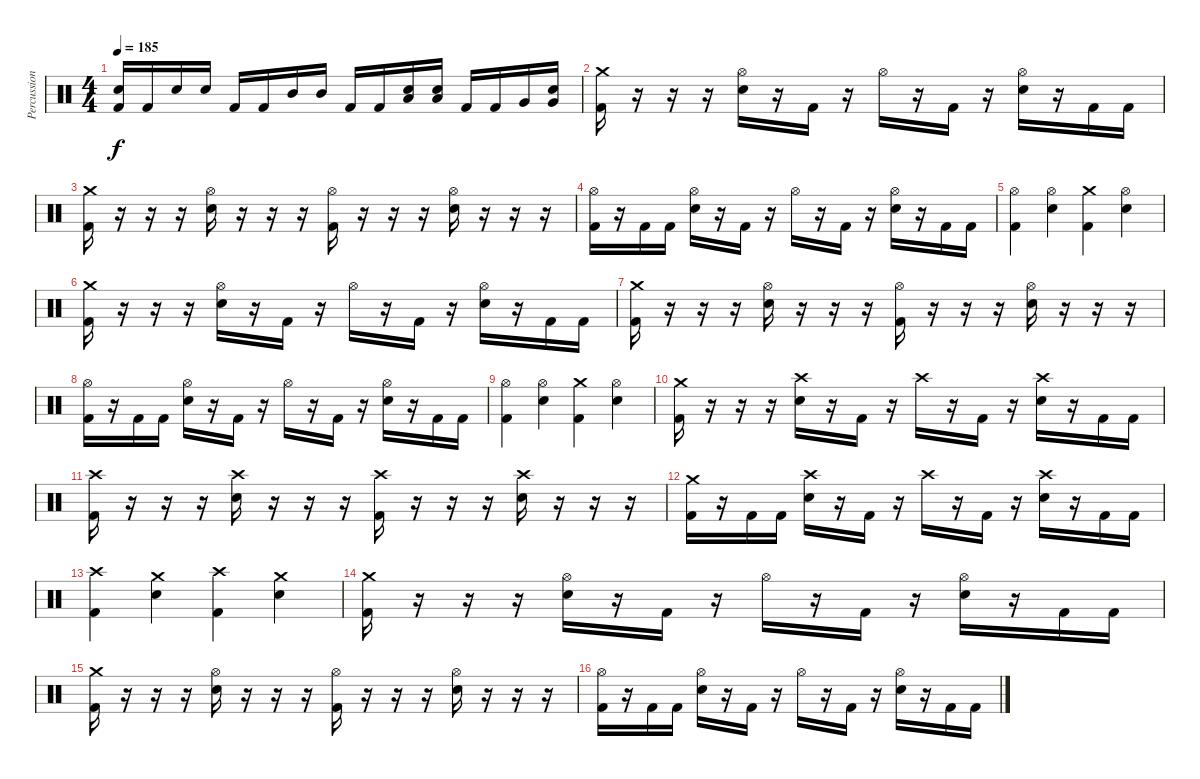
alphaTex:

\track ("Percussion" "Percussion") {instrument percussion}
\staff {score}
\articulation defaults
\ts (4 4)
\tempo 185
\clef neutral
\ks c
("Electric Snare (hit)" "Kick (hit) 2").16{dy f} "Kick (hit) 2".16 "Electric Snare (hit)".16 "Electric Snare (hit)".16 "Kick (hit) 2".16 "Kick (hit) 2".16 "Mid Tom (hit)".16 "Mid Tom (hit)".16 "Kick (hit) 2".16 "Kick (hit) 2".16 ("Electric Snare (hit)" "Low Tom (hit)").16 ("Electric Snare (hit)" "Low Tom (hit)").16 "Kick (hit) 2".16 "Kick (hit) 2".16 "Very Low Tom (hit)".16 ("Electric Snare (hit)" "Very Low Tom (hit)").16 |
("Crash medium (hit)" "Kick (hit) 2").16 r.16 r.16 r.16 ("Hi-Hat (open)" "Electric Snare (hit)").16 r.16 "Kick (hit) 2".16 r.16 "Hi-Hat (open)".16 r.16 "Kick (hit) 2".16 r.16 ("Hi-Hat (open)" "Electric Snare (hit)").16 r.16 "Kick (hit) 2".16 "Kick (hit) 2".16 |
("Crash medium (hit)" "Kick (hit) 2").16 r.16 r.16 r.16 ("Hi-Hat (open)" "Electric Snare (hit)").16 r.16 r.16 r.16 ("Hi-Hat (open)" "Kick (hit) 2").16 r.16 r.16 r.16 ("Hi-Hat (open)" "Electric Snare (hit)").16 r.16 r.16 r.16 |
("Hi-Hat (open)" "Kick (hit) 2").16 r.16 "Kick (hit) 2".16 "Kick (hit) 2".16 ("Hi-Hat (open)" "Electric Snare (hit)").16 r.16 "Kick (hit) 2".16 r.16 "Hi-Hat (open)".16 r.16 "Kick (hit) 2".16 r.16 ("Hi-Hat (open)" "Electric Snare (hit)").16 r.16 "Kick (hit) 2".16 "Kick (hit) 2".16 |
("Hi-Hat (open)" "Kick (hit) 2").4 ("Hi-Hat (open)" "Electric Snare (hit)").4 ("Crash medium (hit)" "Kick (hit) 2").4 ("Hi-Hat (open)" "Electric Snare (hit)").4 |
("Crash medium (hit)" "Kick (hit) 2").16 r.16 r.16 r.16 ("Hi-Hat (open)" "Electric Snare (hit)").16 r.16 "Kick (hit) 2".16 r.16 "Hi-Hat (open)".16 r.16 "Kick (hit) 2".16 r.16 ("Hi-Hat (open)" "Electric Snare (hit)").16 r.16 "Kick (hit) 2".16 "Kick (hit) 2".16 |
("Crash medium (hit)" "Kick (hit) 2").16 r.16 r.16 r.16 ("Hi-Hat (open)" "Electric Snare (hit)").16 r.16 r.16 r.16 ("Hi-Hat (open)" "Kick (hit) 2").16 r.16 r.16 r.16 ("Hi-Hat (open)" "Electric Snare (hit)").16 r.16 r.16 r.16 |
("Hi-Hat (open)" "Kick (hit) 2").16 r.16 "Kick (hit) 2".16 "Kick (hit) 2".16 ("Hi-Hat (open)" "Electric Snare (hit)").16 r.16 "Kick (hit) 2".16 r.16 "Hi-Hat (open)".16 r.16 "Kick (hit) 2".16 r.16 ("Hi-Hat (open)" "Electric Snare (hit)").16 r.16 "Kick (hit) 2".16 "Kick (hit) 2".16 |
("Hi-Hat (open)" "Kick (hit) 2").4 ("Hi-Hat (open)" "Electric Snare (hit)").4 ("Crash medium (hit)" "Kick (hit) 2").4 ("Hi-Hat (open)" "Electric Snare (hit)").4 |
("Crash medium (hit)" "Kick (hit) 2").16 r.16 r.16 r.16 ("Crash high (hit)" "Electric Snare (hit)").16 r.16 "Kick (hit) 2".16 r.16 "Crash high (hit)".16 r.16 "Kick (hit) 2".16 r.16 ("Crash high (hit)" "Electric Snare (hit)").16 r.16 "Kick (hit) 2".16 "Kick (hit) 2".16 |
("Crash high (hit)" "Kick (hit) 2").16 r.16 r.16 r.16 ("Crash high (hit)" "Electric Snare (hit)").16 r.16 r.16 r.16 ("Crash high (hit)" "Kick (hit) 2").16 r.16 r.16 r.16 ("Crash high (hit)" "Electric Snare (hit)").16 r.16 r.16 r.16 |
("Crash medium (hit)" "Kick (hit) 2").16 r.16 "Kick (hit) 2".16 "Kick (hit) 2".16 ("Crash high (hit)" "Electric Snare (hit)").16 r.16 "Kick (hit) 2".16 r.16 "Crash high (hit)".16 r.16 "Kick (hit) 2".16 r.16 ("Crash high (hit)" "Electric Snare (hit)").16 r.16 "Kick (hit) 2".16 "Kick (hit) 2".16 |
("Crash high (hit)" "Kick (hit) 2").4 ("Crash medium (hit)" "Electric Snare (hit)").4 ("Crash high (hit)" "Kick (hit) 2").4 ("Crash medium (hit)" "Electric Snare (hit)").4 |
("Crash medium (hit)" "Kick (hit) 2").16 r.16 r.16 r.16 ("Hi-Hat (open)" "Electric Snare (hit)").16 r.16 "Kick (hit) 2".16 r.16 "Hi-Hat (open)".16 r.16 "Kick (hit) 2".16 r.16 ("Hi-Hat (open)" "Electric Snare (hit)").16 r.16 "Kick (hit) 2".16 "Kick (hit) 2".16 |
("Crash medium (hit)" "Kick (hit) 2").16 r.16 r.16 r.16 ("Hi-Hat (open)" "Electric Snare (hit)").16 r.16 r.16 r.16 ("Hi-Hat (open)" "Kick (hit) 2").16 r.16 r.16 r.16 ("Hi-Hat (open)" "Electric Snare (hit)").16 r.16 r.16 r.16 |
("Hi-Hat (open)" "Kick (hit) 2").16 r.16 "Kick (hit) 2".16 "Kick (hit) 2".16 ("Hi-Hat (open)" "Electric Snare (hit)").16 r.16 "Kick (hit) 2".16 r.16 "Hi-Hat (open)".16 r.16 "Kick (hit) 2".16 r.16 ("Hi-Hat (open)" "Electric Snare (hit)").16 r.16 "Kick (hit) 2".16 "Kick (hit) 2".16
